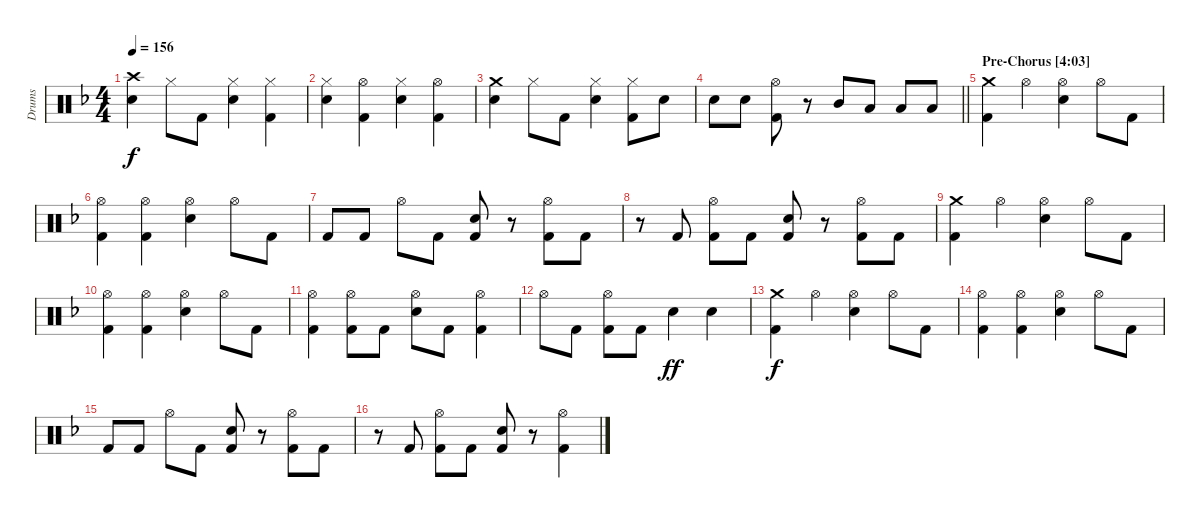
\track ("Drums" "Drums") {instrument percussion}
\staff {score}
\articulation defaults
\ts (4 4)
\tempo 156
\clef neutral
\ks dminor
("Crash high (hit)" "Snare (hit) 2").4{dy f} "Hi-Hat (closed)".8 "Kick (hit) 2".8 ("Hi-Hat (closed)" "Snare (hit) 2").4 ("Hi-Hat (closed)" "Kick (hit) 2").4 |
("Hi-Hat (closed)" "Snare (hit) 2").4 ("Hi-Hat (open)" "Kick (hit) 2").4 ("Hi-Hat (closed)" "Snare (hit) 2").4 ("Hi-Hat (open)" "Kick (hit) 2").4 |
("Crash medium (hit)" "Snare (hit) 2").4 "Hi-Hat (closed)".8 "Kick (hit) 2".8 ("Hi-Hat (closed)" "Snare (hit) 2").4 ("Hi-Hat (closed)" "Kick (hit) 2").8 "Snare (hit) 2".8 |
\barLineRight lightlight "Snare (hit) 2".8 "Snare (hit) 2".8
("Hi-Hat (open)" "Kick (hit) 2").8 r.8 "Mid Tom (hit)".8 "Low Tom (hit)".8 "Low Floor Tom (hit)".8 "Low Floor Tom (hit)".8 |
\section ("" "Pre-Chorus [4:03]")
("Crash medium (hit)" "Kick (hit) 2").4 "Hi-Hat (open)".4 ("Hi-Hat (open)" "Snare (hit) 2").4 "Hi-Hat (open)".8 "Kick (hit) 2".8 |
("Hi-Hat (open)" "Kick (hit) 2").4 ("Hi-Hat (open)" "Kick (hit) 2").4 ("Hi-Hat (open)" "Snare (hit) 2").4 "Hi-Hat (open)".8 "Kick (hit) 2".8 |
"Kick (hit) 2".8 "Kick (hit) 2".8 "Hi-Hat (open)".8 "Kick (hit) 2".8 ("Snare (hit) 2" "Kick (hit) 2").8 r.8 ("Hi-Hat (open)" "Kick (hit) 2").8 "Kick (hit) 2".8 |
r.8 "Kick (hit) 2".8 ("Hi-Hat (open)" "Kick (hit) 2").8 "Kick (hit) 2".8 ("Snare (hit) 2" "Kick (hit) 2").8 r.8 ("Hi-Hat (open)" "Kick (hit) 2").8 "Kick (hit) 2".8 |
("Crash medium (hit)" "Kick (hit) 2").4 "Hi-Hat (open)".4 ("Hi-Hat (open)" "Snare (hit) 2").4 "Hi-Hat (open)".8 "Kick (hit) 2".8 |
("Hi-Hat (open)" "Kick (hit) 2").4 ("Hi-Hat (open)" "Kick (hit) 2").4 ("Hi-Hat (open)" "Snare (hit) 2").4 "Hi-Hat (open)".8 "Kick (hit) 2".8 |
("Hi-Hat (open)" "Kick (hit) 2").4 ("Hi-Hat (open)" "Kick (hit) 2").8 "Kick (hit) 2".8 ("Hi-Hat (open)" "Snare (hit) 2").8 "Kick (hit) 2".8 ("Hi-Hat (open)" "Kick (hit) 2").4 |
"Hi-Hat (open)".8 "Kick (hit) 2".8 ("Hi-Hat (open)" "Kick (hit) 2").8 "Kick (hit) 2".8 "Snare (hit) 2".4{dy ff} "Snare (hit) 2".4 |
("Crash medium (hit)" "Kick (hit) 2").4{dy f} "Hi-Hat (open)".4 ("Hi-Hat (open)" "Snare (hit) 2").4 "Hi-Hat (open)".8 "Kick (hit) 2".8 |
("Hi-Hat (open)" "Kick (hit) 2").4 ("Hi-Hat (open)" "Kick (hit) 2").4 ("Hi-Hat (open)" "Snare (hit) 2").4 "Hi-Hat (open)".8 "Kick (hit) 2".8 |
"Kick (hit) 2".8 "Kick (hit) 2".8 "Hi-Hat (open)".8 "Kick (hit) 2".8 ("Snare (hit) 2" "Kick (hit) 2").8 r.8 ("Hi-Hat (open)" "Kick (hit) 2").8 "Kick (hit) 2".8 |
r.8 "Kick (hit) 2".8 ("Hi-Hat (open)" "Kick (hit) 2").8 "Kick (hit) 2".8 ("Snare (hit) 2" "Kick (hit) 2").8 r.8 ("Hi-Hat (open)" "Kick (hit) 2").4
